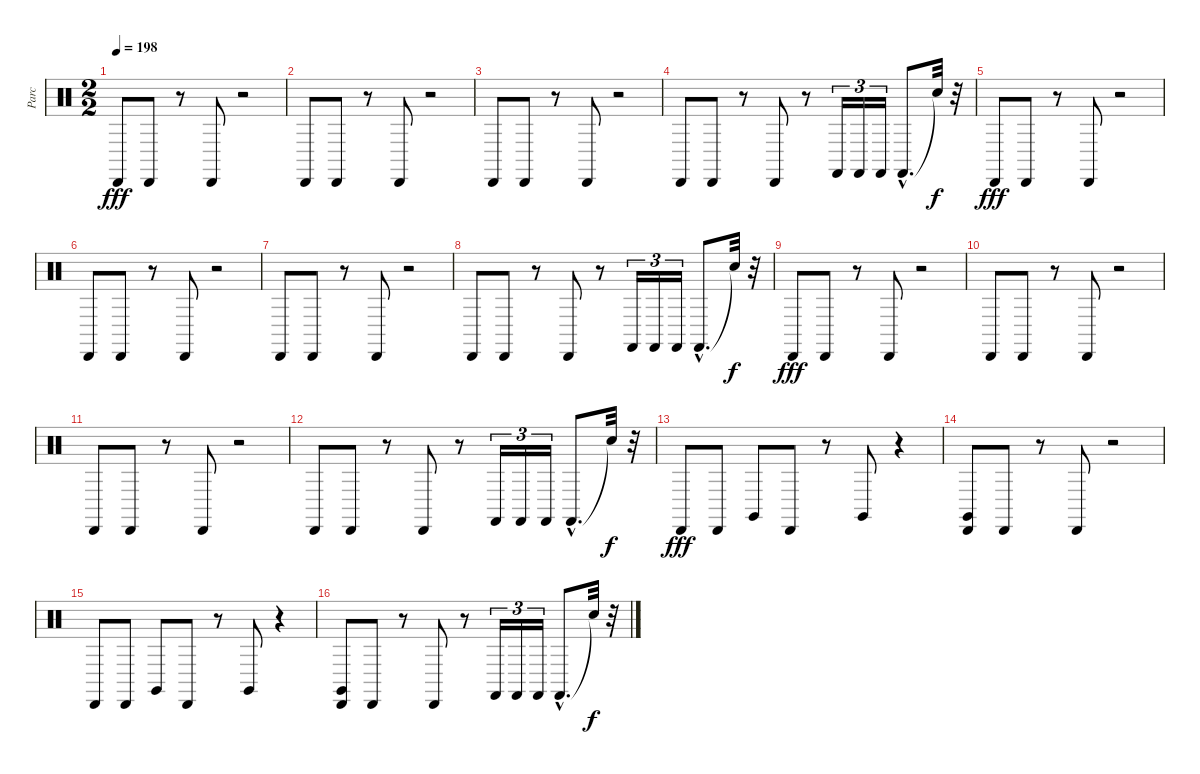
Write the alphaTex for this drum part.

\track ("Parc" "Parc") {instrument percussion}
\staff {score}
\articulation defaults
\ts (2 2)
\tempo 198
\clef neutral
\ks c "Cabasa (hit)".8{dy fff} "Cabasa (hit)".8
r.8 "Cabasa (hit)".8 r.2 |
"Cabasa (hit)".8 "Cabasa (hit)".8 r.8 "Cabasa (hit)".8 r.2 |
"Cabasa (hit)".8 "Cabasa (hit)".8 r.8 "Cabasa (hit)".8 r.2 |
"Cabasa (hit)".8 "Cabasa (hit)".8 r.8 "Cabasa (hit)".8 r.8 "Castanets (hit)".16{tu (3 2)} "Castanets (hit)".16{tu (3 2)} "Castanets (hit)".16{tu (3 2)} "Castanets (hit)"{hac}.8{d} "Snare (hit)"{t}.32{dy f} r.32 |
"Cabasa (hit)".8{dy fff} "Cabasa (hit)".8 r.8 "Cabasa (hit)".8 r.2 |
"Cabasa (hit)".8 "Cabasa (hit)".8 r.8 "Cabasa (hit)".8 r.2 |
"Cabasa (hit)".8 "Cabasa (hit)".8 r.8 "Cabasa (hit)".8 r.2 |
"Cabasa (hit)".8 "Cabasa (hit)".8 r.8 "Cabasa (hit)".8 r.8 "Castanets (hit)".16{tu (3 2)} "Castanets (hit)".16{tu (3 2)} "Castanets (hit)".16{tu (3 2)} "Castanets (hit)"{hac}.8{d} "Snare (hit)"{t}.32{dy f} r.32 |
"Cabasa (hit)".8{dy fff} "Cabasa (hit)".8 r.8 "Cabasa (hit)".8 r.2 |
"Cabasa (hit)".8 "Cabasa (hit)".8 r.8 "Cabasa (hit)".8 r.2 |
"Cabasa (hit)".8 "Cabasa (hit)".8 r.8 "Cabasa (hit)".8 r.2 |
"Cabasa (hit)".8 "Cabasa (hit)".8 r.8 "Cabasa (hit)".8 r.8 "Castanets (hit)".16{tu (3 2)} "Castanets (hit)".16{tu (3 2)} "Castanets (hit)".16{tu (3 2)} "Castanets (hit)"{hac}.8{d} "Snare (hit)"{t}.32{dy f} r.32 |
"Cabasa (hit)".8{dy fff} "Cabasa (hit)".8 "Claves (hit)".8 "Cabasa (hit)".8 r.8 "Claves (hit)".8 r.4 |
("Claves (hit)" "Cabasa (hit)").8 "Cabasa (hit)".8 r.8 "Cabasa (hit)".8 r.2 |
"Cabasa (hit)".8 "Cabasa (hit)".8 "Claves (hit)".8 "Cabasa (hit)".8 r.8 "Claves (hit)".8 r.4 |
("Claves (hit)" "Cabasa (hit)").8 "Cabasa (hit)".8 r.8 "Cabasa (hit)".8 r.8 "Castanets (hit)".16{tu (3 2)} "Castanets (hit)".16{tu (3 2)} "Castanets (hit)".16{tu (3 2)} "Castanets (hit)"{hac}.8{d} "Snare (hit)"{t}.32{dy f} r.32
